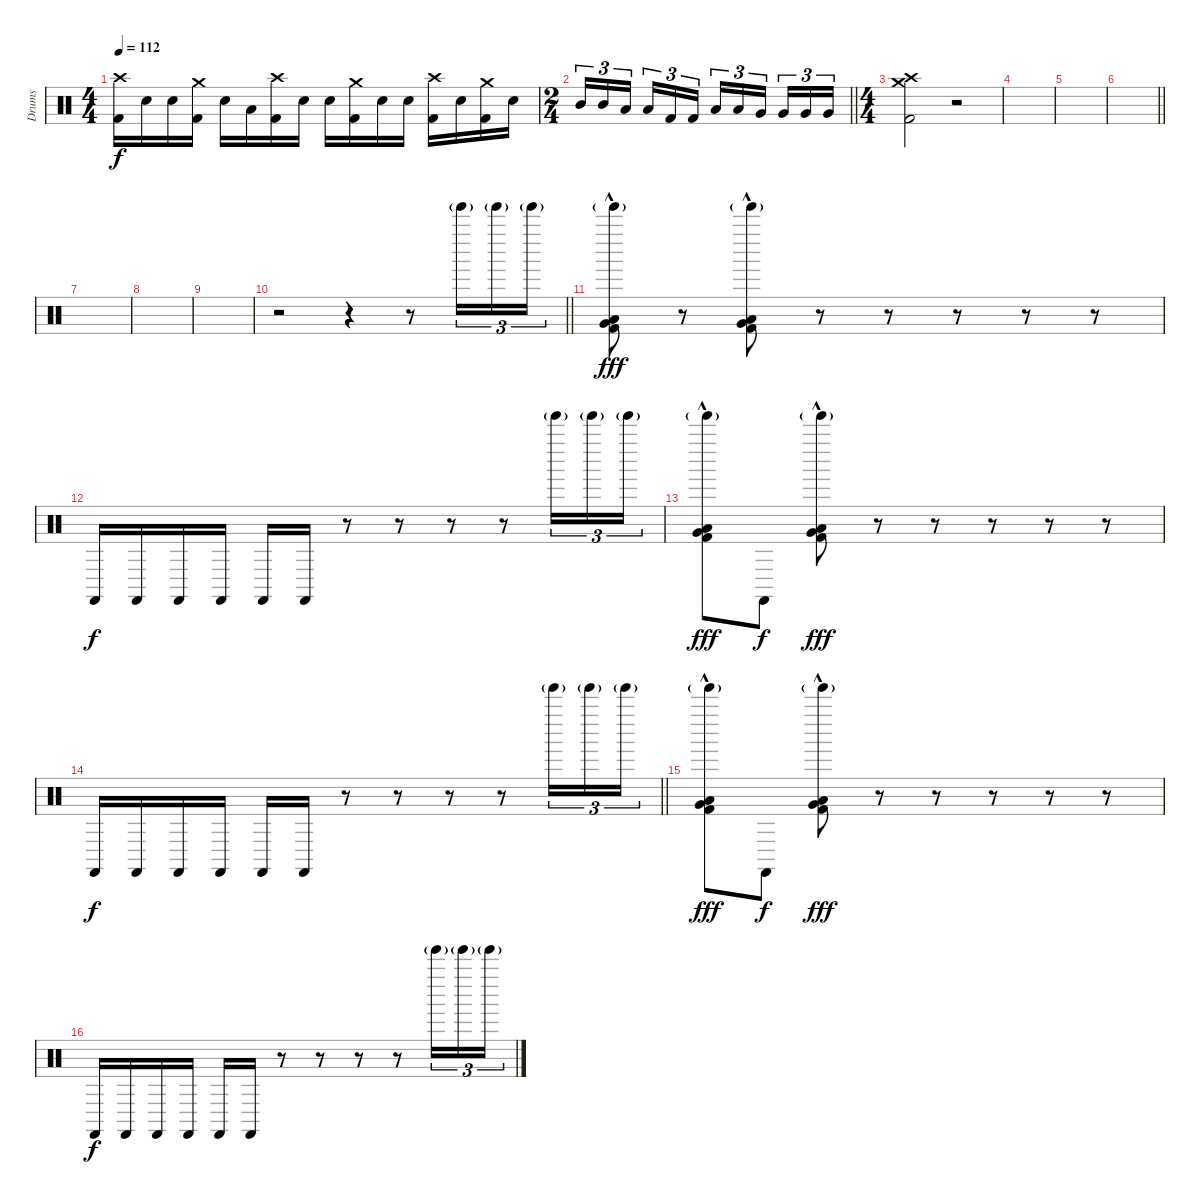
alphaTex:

\track ("Drums" "Drums") {instrument percussion}
\staff {score}
\articulation defaults
\ts (4 4)
\tempo 112
\clef neutral
\ks c
("Crash high (hit)" "Kick (hit) 2").16{dy f} "Electric Snare (hit)".16 "Electric Snare (hit)".16 ("Crash medium (hit)" "Kick (hit) 2").16 "Electric Snare (hit)".16 "Low Tom (hit)".16 ("Crash high (hit)" "Kick (hit) 2").16 "Electric Snare (hit)".16 "Electric Snare (hit)".16 ("Crash medium (hit)" "Kick (hit) 2").16 "Electric Snare (hit)".16 "Electric Snare (hit)".16 ("Crash high (hit)" "Kick (hit) 2").16 "Electric Snare (hit)".16 ("Crash medium (hit)" "Kick (hit) 2").16 "Electric Snare (hit)".16 |
\ts (2 4)
\barLineRight lightlight "Mid Tom (hit)".16{tu (3 2)} "Mid Tom (hit)".16{tu (3 2)} "Low Tom (hit)".16{tu (3 2) beam splitsecondary} "Low Tom (hit)".16{tu (3 2)} "Kick (hit) 2".16{tu (3 2)} "Kick (hit) 2".16{tu (3 2)} "Low Tom (hit)".16{tu (3 2)} "Low Tom (hit)".16{tu (3 2)} "Very Low Tom (hit)".16{tu (3 2) beam splitsecondary} "Very Low Tom (hit)".16{tu (3 2)} "Very Low Tom (hit)".16{tu (3 2)} "Very Low Tom (hit)".16{tu (3 2)}
|
\ts (4 4)
("Crash high (hit)" "Crash medium (hit)" "Kick (hit) 2").2 r.2 |
|
|
\barLineRight lightlight
|
|
|
|
\barLineRight lightlight
r.2 r.4 r.8 "Tinkle Bell (hit)"{g}.16{tu (3 2)} "Tinkle Bell (hit)"{g}.16{tu (3 2)} "Tinkle Bell (hit)"{g}.16{tu (3 2)} |
("Tinkle Bell (hit)"{g} "Low Tom (hit)"{hac} "Very Low Tom (hit)"{hac} "Kick (hit) 2"{hac}).8{dy fff} r.8 ("Tinkle Bell (hit)"{g} "Low Tom (hit)"{hac} "Very Low Tom (hit)"{hac} "Kick (hit) 2"{hac}).8 r.8 r.8 r.8 r.8 r.8 |
"Castanets (hit)".16{dy f} "Castanets (hit)".16 "Castanets (hit)".16 "Castanets (hit)".16 "Castanets (hit)".16 "Castanets (hit)".16 r.8 r.8 r.8 r.8 "Tinkle Bell (hit)"{g}.16{tu (3 2)} "Tinkle Bell (hit)"{g}.16{tu (3 2)} "Tinkle Bell (hit)"{g}.16{tu (3 2)} |
("Tinkle Bell (hit)"{g} "Low Tom (hit)"{hac} "Very Low Tom (hit)"{hac} "Kick (hit) 2"{hac}).8{dy fff} "Castanets (hit)".8{dy f} ("Tinkle Bell (hit)"{g} "Low Tom (hit)"{hac} "Very Low Tom (hit)"{hac} "Kick (hit) 2"{hac}).8{dy fff} r.8 r.8 r.8 r.8 r.8 |
\barLineRight lightlight "Castanets (hit)".16{dy f} "Castanets (hit)".16 "Castanets (hit)".16 "Castanets (hit)".16 "Castanets (hit)".16 "Castanets (hit)".16
r.8 r.8 r.8 r.8 "Tinkle Bell (hit)"{g}.16{tu (3 2)} "Tinkle Bell (hit)"{g}.16{tu (3 2)} "Tinkle Bell (hit)"{g}.16{tu (3 2)} |
("Tinkle Bell (hit)"{g} "Low Tom (hit)"{hac} "Very Low Tom (hit)"{hac} "Kick (hit) 2"{hac}).8{dy fff} "Castanets (hit)".8{dy f} ("Tinkle Bell (hit)"{g} "Low Tom (hit)"{hac} "Very Low Tom (hit)"{hac} "Kick (hit) 2"{hac}).8{dy fff} r.8 r.8 r.8 r.8 r.8 |
"Castanets (hit)".16{dy f} "Castanets (hit)".16 "Castanets (hit)".16 "Castanets (hit)".16 "Castanets (hit)".16 "Castanets (hit)".16 r.8 r.8 r.8 r.8 "Tinkle Bell (hit)"{g}.16{tu (3 2)} "Tinkle Bell (hit)"{g}.16{tu (3 2)} "Tinkle Bell (hit)"{g}.16{tu (3 2)}
